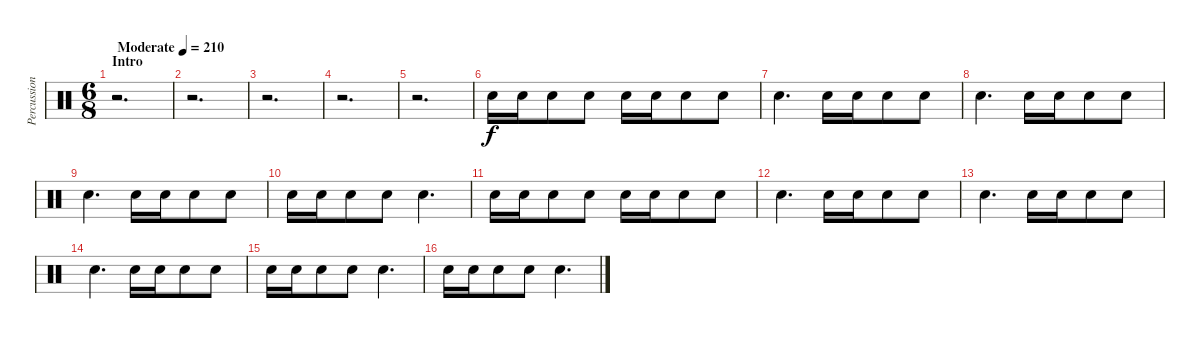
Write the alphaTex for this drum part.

\track ("Percussion" "Percussion") {instrument percussion}
\staff {score}
\articulation defaults
\ts (6 8)
\section ("" "Intro")
\tempo (210 "Moderate")
\clef neutral
\ks c
r.2{d dy f} |
r.2{d} |
r.2{d} |
r.2{d} |
r.2{d} |
"Electric Snare (hit)".16 "Electric Snare (hit)".16 "Electric Snare (hit)".8 "Electric Snare (hit)".8 "Electric Snare (hit)".16 "Electric Snare (hit)".16 "Electric Snare (hit)".8 "Electric Snare (hit)".8 |
"Electric Snare (hit)".4{d} "Electric Snare (hit)".16 "Electric Snare (hit)".16 "Electric Snare (hit)".8 "Electric Snare (hit)".8 |
"Electric Snare (hit)".4{d} "Electric Snare (hit)".16 "Electric Snare (hit)".16 "Electric Snare (hit)".8 "Electric Snare (hit)".8 |
"Electric Snare (hit)".4{d} "Electric Snare (hit)".16 "Electric Snare (hit)".16 "Electric Snare (hit)".8 "Electric Snare (hit)".8 |
"Electric Snare (hit)".16 "Electric Snare (hit)".16 "Electric Snare (hit)".8 "Electric Snare (hit)".8 "Electric Snare (hit)".4{d} |
"Electric Snare (hit)".16 "Electric Snare (hit)".16 "Electric Snare (hit)".8 "Electric Snare (hit)".8 "Electric Snare (hit)".16 "Electric Snare (hit)".16 "Electric Snare (hit)".8 "Electric Snare (hit)".8 |
"Electric Snare (hit)".4{d} "Electric Snare (hit)".16 "Electric Snare (hit)".16 "Electric Snare (hit)".8 "Electric Snare (hit)".8 |
"Electric Snare (hit)".4{d} "Electric Snare (hit)".16 "Electric Snare (hit)".16 "Electric Snare (hit)".8 "Electric Snare (hit)".8 |
"Electric Snare (hit)".4{d} "Electric Snare (hit)".16 "Electric Snare (hit)".16 "Electric Snare (hit)".8 "Electric Snare (hit)".8 |
"Electric Snare (hit)".16 "Electric Snare (hit)".16 "Electric Snare (hit)".8 "Electric Snare (hit)".8 "Electric Snare (hit)".4{d} |
"Electric Snare (hit)".16 "Electric Snare (hit)".16 "Electric Snare (hit)".8 "Electric Snare (hit)".8 "Electric Snare (hit)".4{d}
